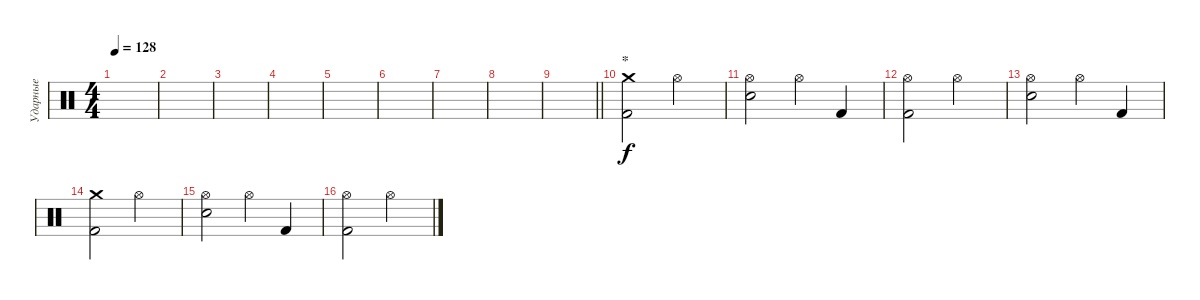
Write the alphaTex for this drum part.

\track ("Ударные" "Ударные") {instrument percussion}
\staff {score}
\articulation defaults
\ts (4 4)
\tempo 128
\clef neutral
\ks c
|
|
|
|
|
|
|
|
\barLineRight lightlight
|
\section ("" "*")
("Crash medium (hit)" "Kick (hit) 2").2 "Hi-Hat (open)".2 |
("Hi-Hat (open)" "Snare (hit) 2").2 "Hi-Hat (open)".4 "Kick (hit) 2".4 |
("Hi-Hat (open)" "Kick (hit) 2").2 "Hi-Hat (open)".2 |
("Hi-Hat (open)" "Snare (hit) 2").2 "Hi-Hat (open)".4 "Kick (hit) 2".4 |
("Crash medium (hit)" "Kick (hit) 2").2 "Hi-Hat (open)".2 |
("Hi-Hat (open)" "Snare (hit) 2").2 "Hi-Hat (open)".4 "Kick (hit) 2".4 |
("Hi-Hat (open)" "Kick (hit) 2").2 "Hi-Hat (open)".2
